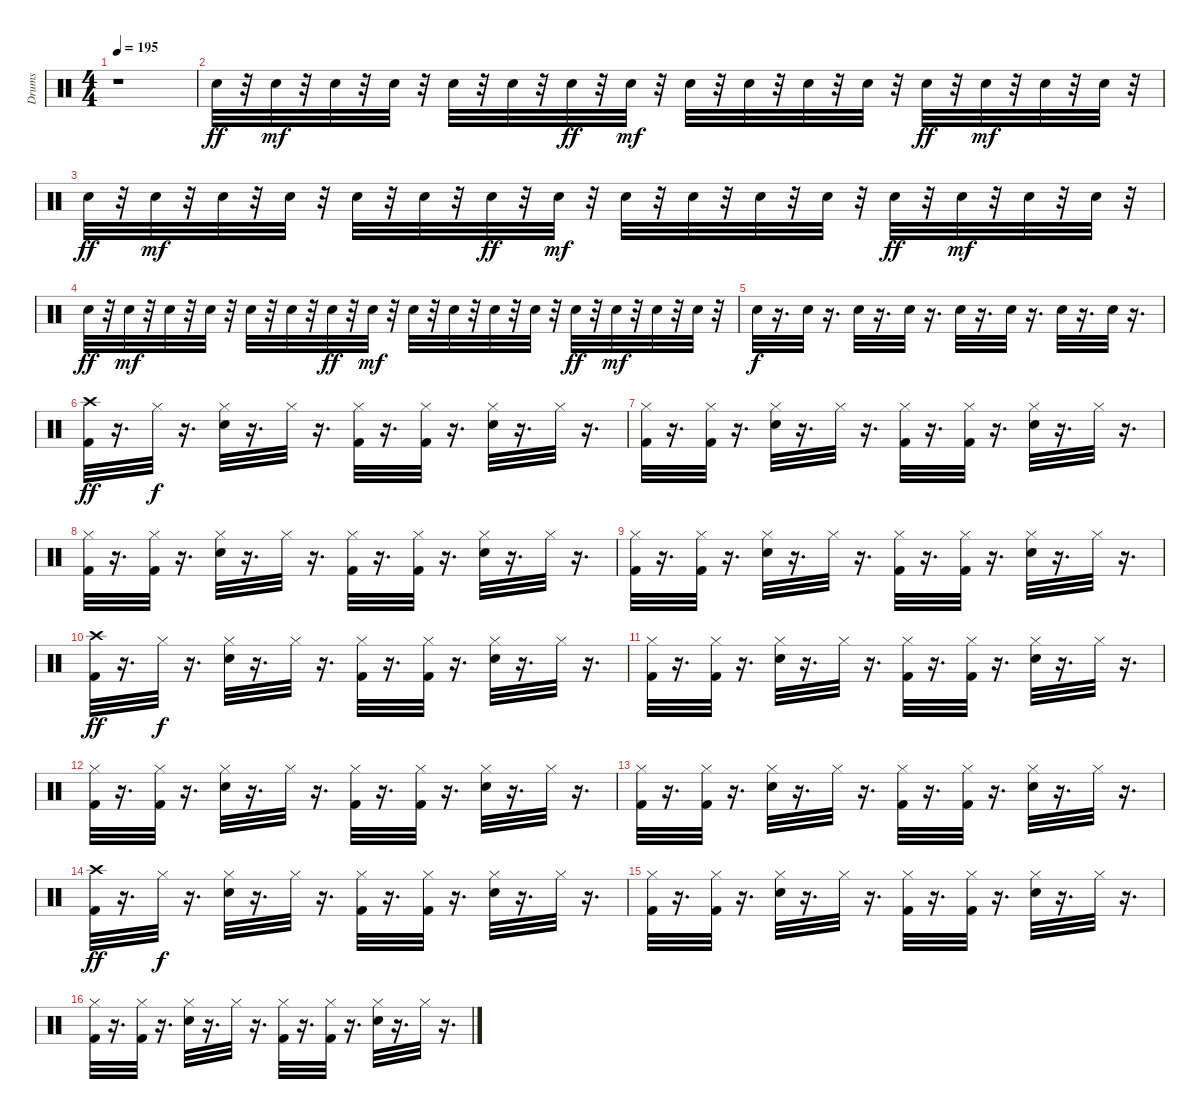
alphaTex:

\track ("Drums" "Drums") {instrument percussion}
\staff {score}
\articulation defaults
\ts (4 4)
\tempo 195
\clef neutral
\ks c
r.1{dy ff} |
"Snare (hit) 2".32{volume 13 balance 8} r.32 "Snare (hit) 2".32{dy mf} r.32 "Snare (hit) 2".32 r.32 "Snare (hit) 2".32 r.32 "Snare (hit) 2".32 r.32 "Snare (hit) 2".32 r.32 "Snare (hit) 2".32{dy ff} r.32 "Snare (hit) 2".32{dy mf} r.32 "Snare (hit) 2".32 r.32 "Snare (hit) 2".32 r.32 "Snare (hit) 2".32 r.32 "Snare (hit) 2".32 r.32 "Snare (hit) 2".32{dy ff} r.32 "Snare (hit) 2".32{dy mf} r.32 "Snare (hit) 2".32 r.32 "Snare (hit) 2".32 r.32 |
"Snare (hit) 2".32{dy ff} r.32 "Snare (hit) 2".32{dy mf} r.32 "Snare (hit) 2".32 r.32 "Snare (hit) 2".32 r.32 "Snare (hit) 2".32 r.32 "Snare (hit) 2".32 r.32 "Snare (hit) 2".32{dy ff} r.32 "Snare (hit) 2".32{dy mf} r.32 "Snare (hit) 2".32 r.32 "Snare (hit) 2".32 r.32 "Snare (hit) 2".32 r.32 "Snare (hit) 2".32 r.32 "Snare (hit) 2".32{dy ff} r.32 "Snare (hit) 2".32{dy mf} r.32 "Snare (hit) 2".32 r.32 "Snare (hit) 2".32 r.32 |
"Snare (hit) 2".32{dy ff} r.32 "Snare (hit) 2".32{dy mf} r.32 "Snare (hit) 2".32 r.32 "Snare (hit) 2".32 r.32 "Snare (hit) 2".32 r.32 "Snare (hit) 2".32 r.32 "Snare (hit) 2".32{dy ff} r.32 "Snare (hit) 2".32{dy mf} r.32 "Snare (hit) 2".32 r.32 "Snare (hit) 2".32 r.32 "Snare (hit) 2".32 r.32 "Snare (hit) 2".32 r.32 "Snare (hit) 2".32{dy ff} r.32 "Snare (hit) 2".32{dy mf} r.32 "Snare (hit) 2".32 r.32 "Snare (hit) 2".32 r.32 |
"Snare (hit) 2".32{dy f} r.16{d} "Snare (hit) 2".32 r.16{d} "Snare (hit) 2".32 r.16{d} "Snare (hit) 2".32 r.16{d} "Snare (hit) 2".32 r.16{d} "Snare (hit) 2".32 r.16{d} "Snare (hit) 2".32 r.16{d} "Snare (hit) 2".32 r.16{d} |
("Crash high (hit)" "Kick (hit) 2").32{dy ff} r.16{d} "Hi-Hat (closed)".32{dy f} r.16{d} ("Hi-Hat (closed)" "Snare (hit) 2").32 r.16{d} "Hi-Hat (closed)".32 r.16{d} ("Hi-Hat (closed)" "Kick (hit) 2").32 r.16{d} ("Hi-Hat (closed)" "Kick (hit) 2").32 r.16{d} ("Hi-Hat (closed)" "Snare (hit) 2").32 r.16{d} "Hi-Hat (closed)".32 r.16{d} |
("Kick (hit) 2" "Hi-Hat (closed)").32 r.16{d} ("Kick (hit) 2" "Hi-Hat (closed)").32 r.16{d} ("Snare (hit) 2" "Hi-Hat (closed)").32 r.16{d} "Hi-Hat (closed)".32 r.16{d} ("Kick (hit) 2" "Hi-Hat (closed)").32 r.16{d} ("Kick (hit) 2" "Hi-Hat (closed)").32 r.16{d} ("Snare (hit) 2" "Hi-Hat (closed)").32 r.16{d} "Hi-Hat (closed)".32 r.16{d} |
("Kick (hit) 2" "Hi-Hat (closed)").32 r.16{d} ("Kick (hit) 2" "Hi-Hat (closed)").32 r.16{d} ("Snare (hit) 2" "Hi-Hat (closed)").32 r.16{d} "Hi-Hat (closed)".32 r.16{d} ("Kick (hit) 2" "Hi-Hat (closed)").32 r.16{d} ("Kick (hit) 2" "Hi-Hat (closed)").32 r.16{d} ("Snare (hit) 2" "Hi-Hat (closed)").32 r.16{d} "Hi-Hat (closed)".32 r.16{d} |
("Hi-Hat (closed)" "Kick (hit) 2").32 r.16{d} ("Hi-Hat (closed)" "Kick (hit) 2").32 r.16{d} ("Hi-Hat (closed)" "Snare (hit) 2").32 r.16{d} "Hi-Hat (closed)".32 r.16{d} ("Hi-Hat (closed)" "Kick (hit) 2").32 r.16{d} ("Hi-Hat (closed)" "Kick (hit) 2").32 r.16{d} ("Hi-Hat (closed)" "Snare (hit) 2").32 r.16{d} "Hi-Hat (closed)".32 r.16{d} |
("Crash high (hit)" "Kick (hit) 2").32{dy ff} r.16{d} "Hi-Hat (closed)".32{dy f} r.16{d} ("Hi-Hat (closed)" "Snare (hit) 2").32 r.16{d} "Hi-Hat (closed)".32 r.16{d} ("Hi-Hat (closed)" "Kick (hit) 2").32 r.16{d} ("Hi-Hat (closed)" "Kick (hit) 2").32 r.16{d} ("Hi-Hat (closed)" "Snare (hit) 2").32 r.16{d} "Hi-Hat (closed)".32 r.16{d} |
("Kick (hit) 2" "Hi-Hat (closed)").32 r.16{d} ("Kick (hit) 2" "Hi-Hat (closed)").32 r.16{d} ("Snare (hit) 2" "Hi-Hat (closed)").32 r.16{d} "Hi-Hat (closed)".32 r.16{d} ("Kick (hit) 2" "Hi-Hat (closed)").32 r.16{d} ("Kick (hit) 2" "Hi-Hat (closed)").32 r.16{d} ("Snare (hit) 2" "Hi-Hat (closed)").32 r.16{d} "Hi-Hat (closed)".32 r.16{d} |
("Kick (hit) 2" "Hi-Hat (closed)").32 r.16{d} ("Kick (hit) 2" "Hi-Hat (closed)").32 r.16{d} ("Snare (hit) 2" "Hi-Hat (closed)").32 r.16{d} "Hi-Hat (closed)".32 r.16{d} ("Kick (hit) 2" "Hi-Hat (closed)").32 r.16{d} ("Kick (hit) 2" "Hi-Hat (closed)").32 r.16{d} ("Snare (hit) 2" "Hi-Hat (closed)").32 r.16{d} "Hi-Hat (closed)".32 r.16{d} |
("Hi-Hat (closed)" "Kick (hit) 2").32 r.16{d} ("Hi-Hat (closed)" "Kick (hit) 2").32 r.16{d} ("Hi-Hat (closed)" "Snare (hit) 2").32 r.16{d} "Hi-Hat (closed)".32 r.16{d} ("Hi-Hat (closed)" "Kick (hit) 2").32 r.16{d} ("Hi-Hat (closed)" "Kick (hit) 2").32 r.16{d} ("Hi-Hat (closed)" "Snare (hit) 2").32 r.16{d} "Hi-Hat (closed)".32 r.16{d} |
("Kick (hit) 2" "Crash high (hit)").32{dy ff} r.16{d} "Hi-Hat (closed)".32{dy f} r.16{d} ("Snare (hit) 2" "Hi-Hat (closed)").32 r.16{d} "Hi-Hat (closed)".32 r.16{d} ("Kick (hit) 2" "Hi-Hat (closed)").32 r.16{d} ("Kick (hit) 2" "Hi-Hat (closed)").32 r.16{d} ("Snare (hit) 2" "Hi-Hat (closed)").32 r.16{d} "Hi-Hat (closed)".32 r.16{d} |
("Kick (hit) 2" "Hi-Hat (closed)").32 r.16{d} ("Kick (hit) 2" "Hi-Hat (closed)").32 r.16{d} ("Snare (hit) 2" "Hi-Hat (closed)").32 r.16{d} "Hi-Hat (closed)".32 r.16{d} ("Kick (hit) 2" "Hi-Hat (closed)").32 r.16{d} ("Kick (hit) 2" "Hi-Hat (closed)").32 r.16{d} ("Snare (hit) 2" "Hi-Hat (closed)").32 r.16{d} "Hi-Hat (closed)".32 r.16{d} |
("Kick (hit) 2" "Hi-Hat (closed)").32 r.16{d} ("Kick (hit) 2" "Hi-Hat (closed)").32 r.16{d} ("Snare (hit) 2" "Hi-Hat (closed)").32 r.16{d} "Hi-Hat (closed)".32 r.16{d} ("Kick (hit) 2" "Hi-Hat (closed)").32 r.16{d} ("Kick (hit) 2" "Hi-Hat (closed)").32 r.16{d} ("Snare (hit) 2" "Hi-Hat (closed)").32 r.16{d} "Hi-Hat (closed)".32 r.16{d}
